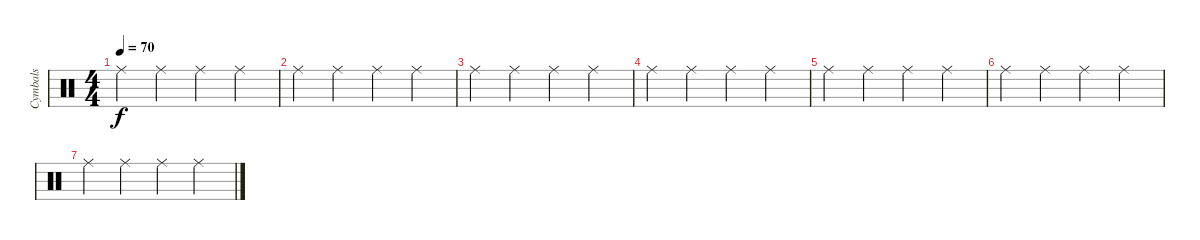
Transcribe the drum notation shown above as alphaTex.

\track ("Cymbals" "Cymbals") {instrument percussion}
\staff {score}
\articulation defaults
\ts (4 4)
\tempo 70
\clef neutral
\ks c "Ride (middle)".4{dy f} "Ride (middle)".4 "Ride (middle)".4 "Ride (middle)".4
|
"Ride (middle)".4 "Ride (middle)".4 "Ride (middle)".4 "Ride (middle)".4 |
"Ride (middle)".4 "Ride (middle)".4 "Ride (middle)".4 "Ride (middle)".4 |
"Ride (middle)".4 "Ride (middle)".4 "Ride (middle)".4 "Ride (middle)".4 |
"Ride (middle)".4 "Ride (middle)".4 "Ride (middle)".4 "Ride (middle)".4 |
"Ride (middle)".4 "Ride (middle)".4 "Ride (middle)".4 "Ride (middle)".4 |
"Ride (middle)".4 "Ride (middle)".4 "Ride (middle)".4 "Ride (middle)".4
